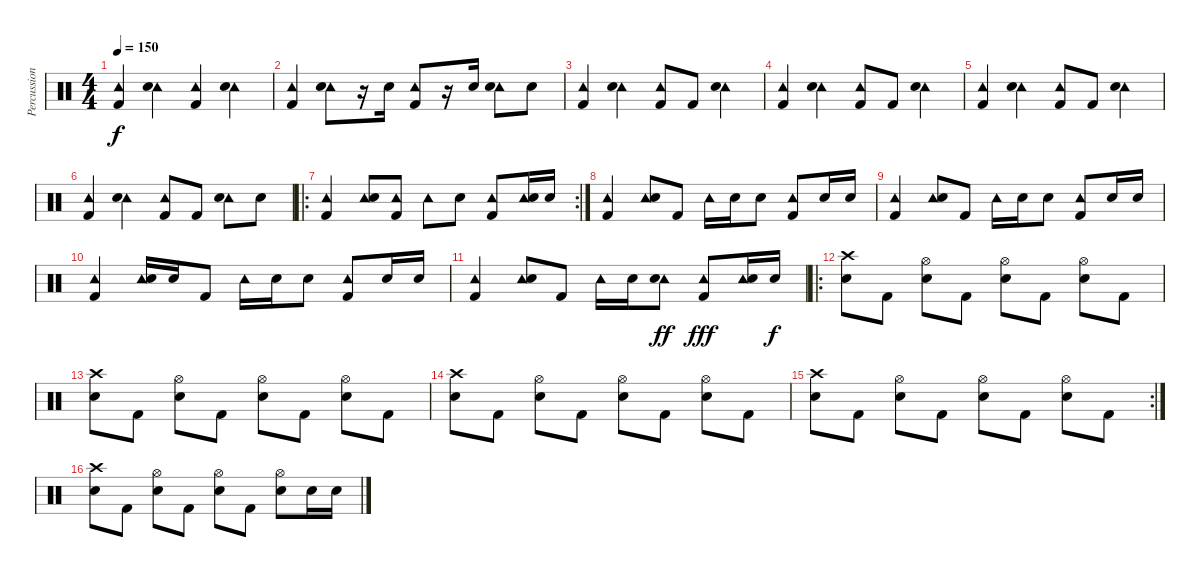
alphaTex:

\track ("Percussion" "Percussion") {instrument percussion}
\staff {score}
\articulation defaults
\ts (4 4)
\tempo 150
\clef neutral
\ks c
("Tambourine (hit)" "Kick (hit) 2").4{dy f} ("Tambourine (hit)" "Snare (hit) 2").4 ("Tambourine (hit)" "Kick (hit) 2").4 ("Tambourine (hit)" "Snare (hit) 2").4 |
("Tambourine (hit)" "Kick (hit) 2").4 ("Tambourine (hit)" "Snare (hit) 2").8 r.16 "Snare (hit) 2".16 ("Tambourine (hit)" "Kick (hit) 2").8 r.16 "Snare (hit) 2".16 ("Tambourine (hit)" "Snare (hit) 2").8 "Snare (hit) 2".8 |
("Tambourine (hit)" "Kick (hit) 2").4 ("Tambourine (hit)" "Snare (hit) 2").4 ("Tambourine (hit)" "Kick (hit) 2").8 "Kick (hit) 2".8 ("Tambourine (hit)" "Snare (hit) 2").4 |
("Tambourine (hit)" "Kick (hit) 2").4 ("Tambourine (hit)" "Snare (hit) 2").4 ("Tambourine (hit)" "Kick (hit) 2").8 "Kick (hit) 2".8 ("Tambourine (hit)" "Snare (hit) 2").4 |
("Tambourine (hit)" "Kick (hit) 2").4 ("Tambourine (hit)" "Snare (hit) 2").4 ("Tambourine (hit)" "Kick (hit) 2").8 "Kick (hit) 2".8 ("Tambourine (hit)" "Snare (hit) 2").4 |
("Tambourine (hit)" "Kick (hit) 2").4 ("Tambourine (hit)" "Snare (hit) 2").4 ("Tambourine (hit)" "Kick (hit) 2").8 "Kick (hit) 2".8 ("Tambourine (hit)" "Snare (hit) 2").8 "Snare (hit) 2".8 |
\ro
\rc 2
("Tambourine (hit)" "Kick (hit) 2").4 ("Tambourine (hit)" "Snare (hit) 2").8 ("Tambourine (hit)" "Kick (hit) 2").8 "Tambourine (hit)".8 "Snare (hit) 2".8 ("Tambourine (hit)" "Kick (hit) 2").8 ("Tambourine (hit)" "Snare (hit) 2").16 "Snare (hit) 2".16 |
("Tambourine (hit)" "Kick (hit) 2").4 ("Tambourine (hit)" "Snare (hit) 2").8 "Kick (hit) 2".8 "Tambourine (hit)".16 "Snare (hit) 2".16 "Snare (hit) 2".8 ("Tambourine (hit)" "Kick (hit) 2").8 "Snare (hit) 2".16 "Snare (hit) 2".16 |
("Tambourine (hit)" "Kick (hit) 2").4 ("Tambourine (hit)" "Snare (hit) 2").8 "Kick (hit) 2".8 "Tambourine (hit)".16 "Snare (hit) 2".16 "Snare (hit) 2".8 ("Tambourine (hit)" "Kick (hit) 2").8 "Snare (hit) 2".16 "Snare (hit) 2".16 |
("Tambourine (hit)" "Kick (hit) 2").4 ("Tambourine (hit)" "Snare (hit) 2").16 "Snare (hit) 2".16 "Kick (hit) 2".8 "Tambourine (hit)".16 "Snare (hit) 2".16 "Snare (hit) 2".8 ("Tambourine (hit)" "Kick (hit) 2").8 "Snare (hit) 2".16 "Snare (hit) 2".16 |
("Tambourine (hit)" "Kick (hit) 2").4 ("Tambourine (hit)" "Snare (hit) 2").8 "Kick (hit) 2".8 "Tambourine (hit)".16 "Snare (hit) 2".16 ("Tambourine (hit)" "Snare (hit) 2").8{dy ff} ("Tambourine (hit)" "Kick (hit) 2").8{dy fff} ("Tambourine (hit)" "Snare (hit) 2").16 "Snare (hit) 2".16{dy f} |
\ro
("Crash high (hit)" "Snare (hit) 2").8 "Kick (hit) 2".8 ("Hi-Hat (open)" "Snare (hit) 2").8 "Kick (hit) 2".8 ("Hi-Hat (open)" "Snare (hit) 2").8 "Kick (hit) 2".8 ("Hi-Hat (open)" "Snare (hit) 2").8 "Kick (hit) 2".8 |
("Crash high (hit)" "Snare (hit) 2").8 "Kick (hit) 2".8 ("Hi-Hat (open)" "Snare (hit) 2").8 "Kick (hit) 2".8 ("Hi-Hat (open)" "Snare (hit) 2").8 "Kick (hit) 2".8 ("Hi-Hat (open)" "Snare (hit) 2").8 "Kick (hit) 2".8 |
("Crash high (hit)" "Snare (hit) 2").8 "Kick (hit) 2".8 ("Hi-Hat (open)" "Snare (hit) 2").8 "Kick (hit) 2".8 ("Hi-Hat (open)" "Snare (hit) 2").8 "Kick (hit) 2".8 ("Hi-Hat (open)" "Snare (hit) 2").8 "Kick (hit) 2".8 |
\rc 2
("Crash high (hit)" "Snare (hit) 2").8 "Kick (hit) 2".8 ("Hi-Hat (open)" "Snare (hit) 2").8 "Kick (hit) 2".8 ("Hi-Hat (open)" "Snare (hit) 2").8 "Kick (hit) 2".8 ("Hi-Hat (open)" "Snare (hit) 2").8 "Kick (hit) 2".8 |
("Crash high (hit)" "Snare (hit) 2").8 "Kick (hit) 2".8 ("Hi-Hat (open)" "Snare (hit) 2").8 "Kick (hit) 2".8 ("Hi-Hat (open)" "Snare (hit) 2").8 "Kick (hit) 2".8 ("Hi-Hat (open)" "Snare (hit) 2").8 "Snare (hit) 2".16 "Snare (hit) 2".16
